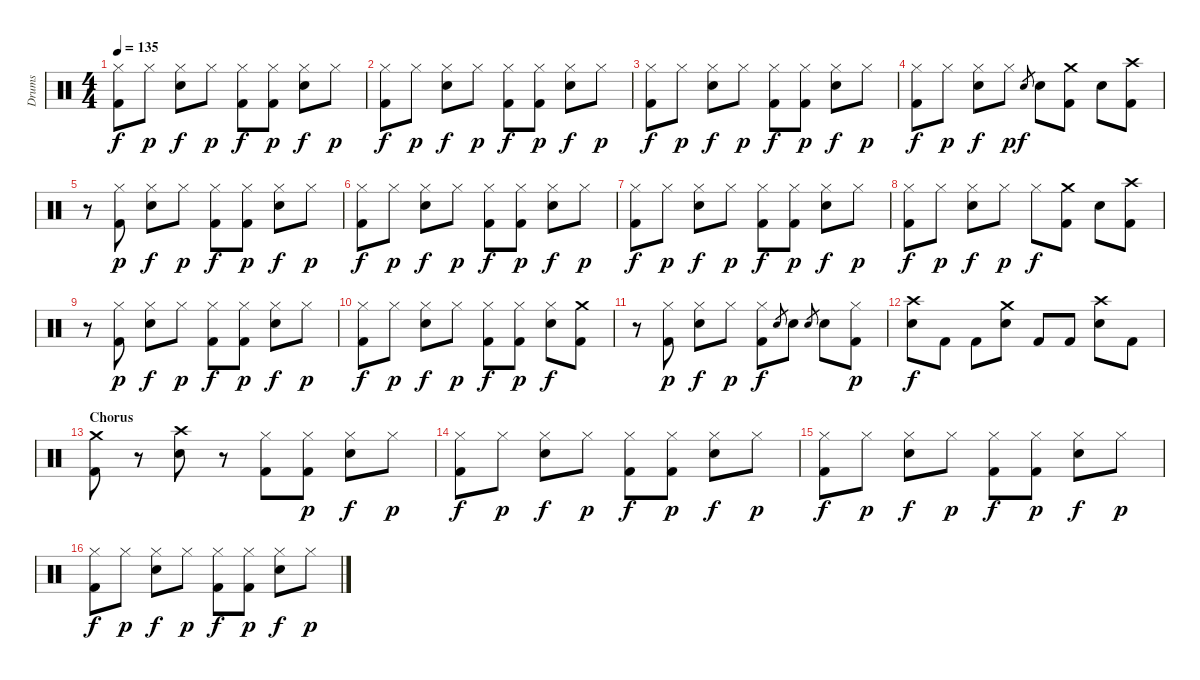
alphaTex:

\track ("Drums" "Drums") {instrument percussion}
\staff {score}
\articulation defaults
\ts (4 4)
\tempo 135
\clef neutral
\ks c
("Hi-Hat (closed)" "Kick (hit) 2").8{dy f} "Hi-Hat (closed)".8{dy p} ("Hi-Hat (closed)" "Snare (hit) 2").8{dy f} "Hi-Hat (closed)".8{dy p} ("Hi-Hat (closed)" "Kick (hit) 2").8{dy f} ("Hi-Hat (closed)" "Kick (hit) 2").8{dy p} ("Hi-Hat (closed)" "Snare (hit) 2").8{dy f} "Hi-Hat (closed)".8{dy p} |
("Hi-Hat (closed)" "Kick (hit) 2").8{dy f} "Hi-Hat (closed)".8{dy p} ("Hi-Hat (closed)" "Snare (hit) 2").8{dy f} "Hi-Hat (closed)".8{dy p} ("Hi-Hat (closed)" "Kick (hit) 2").8{dy f} ("Hi-Hat (closed)" "Kick (hit) 2").8{dy p} ("Hi-Hat (closed)" "Snare (hit) 2").8{dy f} "Hi-Hat (closed)".8{dy p} |
("Hi-Hat (closed)" "Kick (hit) 2").8{dy f} "Hi-Hat (closed)".8{dy p} ("Hi-Hat (closed)" "Snare (hit) 2").8{dy f} "Hi-Hat (closed)".8{dy p} ("Hi-Hat (closed)" "Kick (hit) 2").8{dy f} ("Hi-Hat (closed)" "Kick (hit) 2").8{dy p} ("Hi-Hat (closed)" "Snare (hit) 2").8{dy f} "Hi-Hat (closed)".8{dy p} |
("Hi-Hat (closed)" "Kick (hit) 2").8{dy f} "Hi-Hat (closed)".8{dy p} ("Hi-Hat (closed)" "Snare (hit) 2").8{dy f} "Hi-Hat (closed)".8{dy p} "Snare (hit) 2".8{gr dy f} "Snare (hit) 2".8 ("Crash medium (hit)" "Kick (hit) 2").8 "Snare (hit) 2".8 ("Crash high (hit)" "Kick (hit) 2").8 |
\section ("" "")
r.8 ("Hi-Hat (closed)" "Kick (hit) 2").8{dy p} ("Hi-Hat (closed)" "Snare (hit) 2").8{dy f} "Hi-Hat (closed)".8{dy p} ("Hi-Hat (closed)" "Kick (hit) 2").8{dy f} ("Hi-Hat (closed)" "Kick (hit) 2").8{dy p} ("Hi-Hat (closed)" "Snare (hit) 2").8{dy f} "Hi-Hat (closed)".8{dy p} |
("Hi-Hat (closed)" "Kick (hit) 2").8{dy f} "Hi-Hat (closed)".8{dy p} ("Hi-Hat (closed)" "Snare (hit) 2").8{dy f} "Hi-Hat (closed)".8{dy p} ("Hi-Hat (closed)" "Kick (hit) 2").8{dy f} ("Hi-Hat (closed)" "Kick (hit) 2").8{dy p} ("Hi-Hat (closed)" "Snare (hit) 2").8{dy f} "Hi-Hat (closed)".8{dy p} |
("Hi-Hat (closed)" "Kick (hit) 2").8{dy f} "Hi-Hat (closed)".8{dy p} ("Hi-Hat (closed)" "Snare (hit) 2").8{dy f} "Hi-Hat (closed)".8{dy p} ("Hi-Hat (closed)" "Kick (hit) 2").8{dy f} ("Hi-Hat (closed)" "Kick (hit) 2").8{dy p} ("Hi-Hat (closed)" "Snare (hit) 2").8{dy f} "Hi-Hat (closed)".8{dy p} |
("Hi-Hat (closed)" "Kick (hit) 2").8{dy f} "Hi-Hat (closed)".8{dy p} ("Hi-Hat (closed)" "Snare (hit) 2").8{dy f} "Hi-Hat (closed)".8{dy p} "Hi-Hat (closed)".8{dy f} ("Crash medium (hit)" "Kick (hit) 2").8 "Snare (hit) 2".8 ("Crash high (hit)" "Kick (hit) 2").8 |
r.8 ("Hi-Hat (closed)" "Kick (hit) 2").8{dy p} ("Hi-Hat (closed)" "Snare (hit) 2").8{dy f} "Hi-Hat (closed)".8{dy p} ("Hi-Hat (closed)" "Kick (hit) 2").8{dy f} ("Hi-Hat (closed)" "Kick (hit) 2").8{dy p} ("Hi-Hat (closed)" "Snare (hit) 2").8{dy f} "Hi-Hat (closed)".8{dy p} |
("Hi-Hat (closed)" "Kick (hit) 2").8{dy f} "Hi-Hat (closed)".8{dy p} ("Hi-Hat (closed)" "Snare (hit) 2").8{dy f} "Hi-Hat (closed)".8{dy p} ("Hi-Hat (closed)" "Kick (hit) 2").8{dy f} ("Hi-Hat (closed)" "Kick (hit) 2").8{dy p} ("Hi-Hat (closed)" "Snare (hit) 2").8{dy f} ("Crash medium (hit)" "Kick (hit) 2").8 |
r.8 ("Hi-Hat (closed)" "Kick (hit) 2").8{dy p} ("Hi-Hat (closed)" "Snare (hit) 2").8{dy f} "Hi-Hat (closed)".8{dy p} ("Hi-Hat (closed)" "Kick (hit) 2").8{dy f} "Snare (hit) 2".8{gr} "Snare (hit) 2".8 "Snare (hit) 2".8{gr} "Snare (hit) 2".8 ("Hi-Hat (closed)" "Kick (hit) 2").8{dy p} |
("Crash high (hit)" "Snare (hit) 2").8{dy f} "Kick (hit) 2".8 "Kick (hit) 2".8 ("Crash medium (hit)" "Snare (hit) 2").8 "Kick (hit) 2".8 "Kick (hit) 2".8 ("Crash high (hit)" "Snare (hit) 2").8 "Kick (hit) 2".8 |
\section ("" "Chorus")
("Crash medium (hit)" "Kick (hit) 2").8 r.8 ("Crash high (hit)" "Snare (hit) 2").8 r.8 ("Hi-Hat (closed)" "Kick (hit) 2").8 ("Hi-Hat (closed)" "Kick (hit) 2").8{dy p} ("Hi-Hat (closed)" "Snare (hit) 2").8{dy f} "Hi-Hat (closed)".8{dy p} |
("Hi-Hat (closed)" "Kick (hit) 2").8{dy f} "Hi-Hat (closed)".8{dy p} ("Hi-Hat (closed)" "Snare (hit) 2").8{dy f} "Hi-Hat (closed)".8{dy p} ("Hi-Hat (closed)" "Kick (hit) 2").8{dy f} ("Hi-Hat (closed)" "Kick (hit) 2").8{dy p} ("Hi-Hat (closed)" "Snare (hit) 2").8{dy f} "Hi-Hat (closed)".8{dy p} |
("Hi-Hat (closed)" "Kick (hit) 2").8{dy f} "Hi-Hat (closed)".8{dy p} ("Hi-Hat (closed)" "Snare (hit) 2").8{dy f} "Hi-Hat (closed)".8{dy p} ("Hi-Hat (closed)" "Kick (hit) 2").8{dy f} ("Hi-Hat (closed)" "Kick (hit) 2").8{dy p} ("Hi-Hat (closed)" "Snare (hit) 2").8{dy f} "Hi-Hat (closed)".8{dy p} |
("Hi-Hat (closed)" "Kick (hit) 2").8{dy f} "Hi-Hat (closed)".8{dy p} ("Hi-Hat (closed)" "Snare (hit) 2").8{dy f} "Hi-Hat (closed)".8{dy p} ("Hi-Hat (closed)" "Kick (hit) 2").8{dy f} ("Hi-Hat (closed)" "Kick (hit) 2").8{dy p} ("Hi-Hat (closed)" "Snare (hit) 2").8{dy f} "Hi-Hat (closed)".8{dy p}
